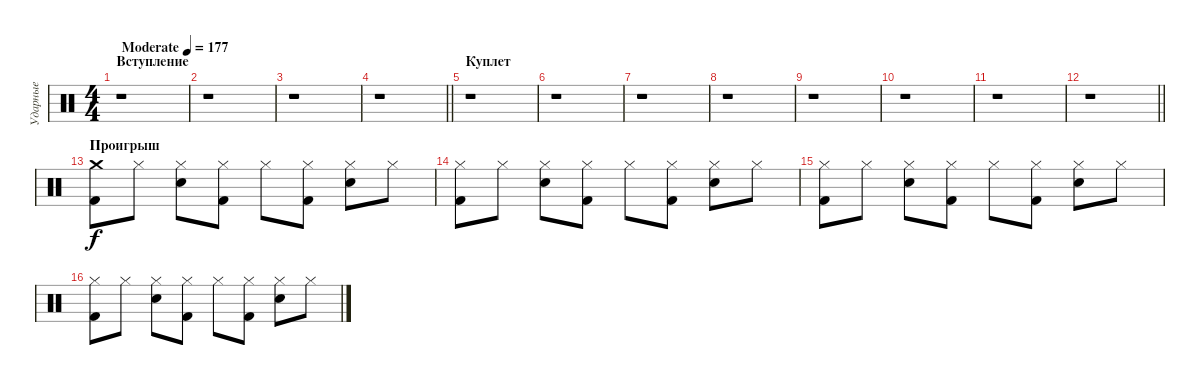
\track ("Ударные" "Ударные") {instrument percussion}
\staff {score}
\articulation defaults
\ts (4 4)
\section ("" "Вступление")
\tempo (177 "Moderate")
\clef neutral
\ks c
r.1{dy f} |
r.1 |
r.1 |
\barLineRight lightlight
r.1 |
\section ("" "Куплет")
r.1 |
r.1 |
r.1 |
r.1 |
r.1 |
r.1 |
r.1 |
\barLineRight lightlight
r.1 |
\section ("" "Проигрыш")
("Crash medium (hit)" "Kick (hit) 2").8 "Hi-Hat (closed)".8 ("Hi-Hat (closed)" "Snare (hit) 2").8 ("Hi-Hat (closed)" "Kick (hit) 2").8 "Hi-Hat (closed)".8 ("Hi-Hat (closed)" "Kick (hit) 2").8 ("Hi-Hat (closed)" "Snare (hit) 2").8 "Hi-Hat (closed)".8 |
("Hi-Hat (closed)" "Kick (hit) 2").8 "Hi-Hat (closed)".8 ("Hi-Hat (closed)" "Snare (hit) 2").8 ("Hi-Hat (closed)" "Kick (hit) 2").8 "Hi-Hat (closed)".8 ("Hi-Hat (closed)" "Kick (hit) 2").8 ("Hi-Hat (closed)" "Snare (hit) 2").8 "Hi-Hat (closed)".8 |
("Hi-Hat (closed)" "Kick (hit) 2").8 "Hi-Hat (closed)".8 ("Hi-Hat (closed)" "Snare (hit) 2").8 ("Hi-Hat (closed)" "Kick (hit) 2").8 "Hi-Hat (closed)".8 ("Hi-Hat (closed)" "Kick (hit) 2").8 ("Hi-Hat (closed)" "Snare (hit) 2").8 "Hi-Hat (closed)".8 |
("Hi-Hat (closed)" "Kick (hit) 2").8 "Hi-Hat (closed)".8 ("Hi-Hat (closed)" "Snare (hit) 2").8 ("Hi-Hat (closed)" "Kick (hit) 2").8 "Hi-Hat (closed)".8 ("Hi-Hat (closed)" "Kick (hit) 2").8 ("Hi-Hat (closed)" "Snare (hit) 2").8 "Hi-Hat (closed)".8
